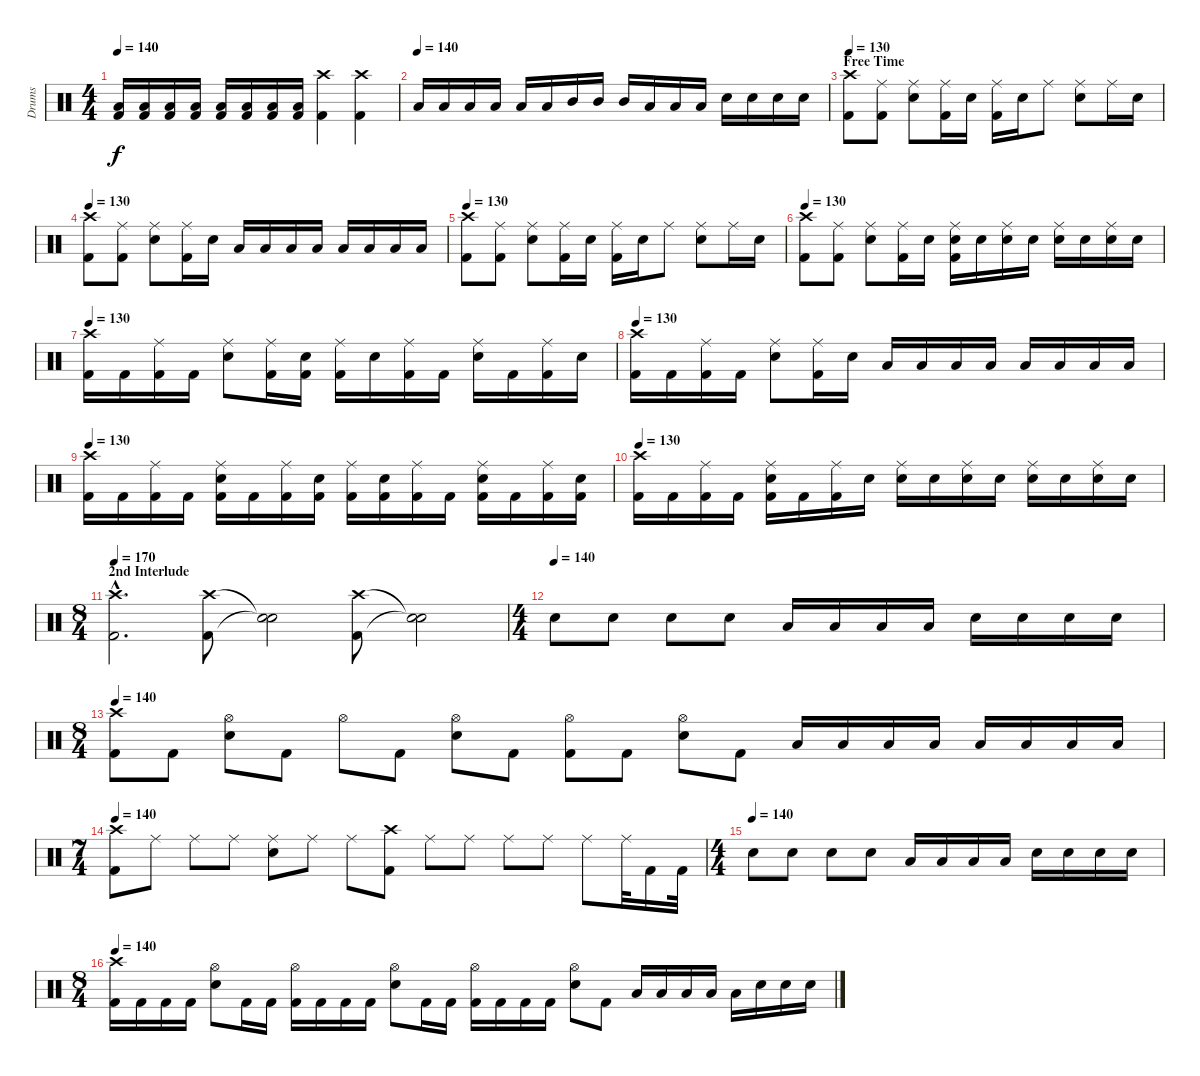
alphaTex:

\track ("Drums" "Drums") {instrument percussion}
\staff {score}
\articulation defaults
\ts (4 4)
\tempo 140
\clef neutral
\ks c
("Low Tom (hit)" "Kick (hit) 2").16{dy f} ("Low Tom (hit)" "Kick (hit) 2").16 ("Low Tom (hit)" "Kick (hit) 2").16 ("Low Tom (hit)" "Kick (hit) 2").16 ("Low Tom (hit)" "Kick (hit) 2").16 ("Low Tom (hit)" "Kick (hit) 2").16 ("Low Tom (hit)" "Kick (hit) 2").16 ("Low Tom (hit)" "Kick (hit) 2").16 ("Crash high (hit)" "Kick (hit) 2").4 ("Crash high (hit)" "Kick (hit) 2").4 |
\tempo (140)
"Low Tom (hit)".16 "Low Tom (hit)".16 "Low Tom (hit)".16 "Low Floor Tom (hit)".16 "Low Floor Tom (hit)".16 "Low Floor Tom (hit)".16 "Mid Tom (hit)".16 "Mid Tom (hit)".16 "Mid Tom (hit)".16 "Low Tom (hit)".16 "Low Tom (hit)".16 "Low Tom (hit)".16 "Snare (hit) 2".16 "Snare (hit) 2".16 "Snare (hit) 2".16 "Snare (hit) 2".16 |
\section ("" "Free Time")
\tempo 130
("Crash high (hit)" "Kick (hit) 2").8 ("Ride (middle)" "Kick (hit) 2").8 ("Ride (middle)" "Snare (hit) 2").8 ("Ride (middle)" "Kick (hit) 2").16 "Snare (hit) 2".16 ("Ride (middle)" "Kick (hit) 2").16 "Snare (hit) 2".16 "Ride (middle)".8 ("Ride (middle)" "Snare (hit) 2").8 "Ride (middle)".16 "Snare (hit) 2".16 |
\tempo 130
("Crash high (hit)" "Kick (hit) 2").8 ("Ride (middle)" "Kick (hit) 2").8 ("Ride (middle)" "Snare (hit) 2").8 ("Ride (middle)" "Kick (hit) 2").16 "Snare (hit) 2".16 "Low Tom (hit)".16 "Low Tom (hit)".16 "Low Tom (hit)".16 "Low Tom (hit)".16 "Low Floor Tom (hit)".16 "Low Floor Tom (hit)".16 "Low Floor Tom (hit)".16 "Low Floor Tom (hit)".16 |
\tempo 130
("Crash high (hit)" "Kick (hit) 2").8 ("Ride (middle)" "Kick (hit) 2").8 ("Ride (middle)" "Snare (hit) 2").8 ("Ride (middle)" "Kick (hit) 2").16 "Snare (hit) 2".16 ("Ride (middle)" "Kick (hit) 2").16 "Snare (hit) 2".16 "Ride (middle)".8 ("Ride (middle)" "Snare (hit) 2").8 "Ride (middle)".16 "Snare (hit) 2".16 |
\tempo 130
("Crash high (hit)" "Kick (hit) 2").8 ("Ride (middle)" "Kick (hit) 2").8 ("Ride (middle)" "Snare (hit) 2").8 ("Ride (middle)" "Kick (hit) 2").16 "Snare (hit) 2".16 ("Ride (middle)" "Snare (hit) 2" "Kick (hit) 2").16 "Snare (hit) 2".16 ("Ride (middle)" "Snare (hit) 2").16 "Snare (hit) 2".16 ("Ride (middle)" "Snare (hit) 2").16 "Snare (hit) 2".16 ("Ride (middle)" "Snare (hit) 2").16 "Snare (hit) 2".16 |
\tempo 130
("Crash high (hit)" "Kick (hit) 2").16 "Kick (hit) 2".16 ("Ride (middle)" "Kick (hit) 2").16 "Kick (hit) 2".16 ("Ride (middle)" "Snare (hit) 2").8 ("Ride (middle)" "Kick (hit) 2").16 ("Snare (hit) 2" "Kick (hit) 2").16 ("Ride (middle)" "Kick (hit) 2").16 "Snare (hit) 2".16 ("Ride (middle)" "Kick (hit) 2").16 "Kick (hit) 2".16 ("Ride (middle)" "Snare (hit) 2").16 "Kick (hit) 2".16 ("Ride (middle)" "Kick (hit) 2").16 "Snare (hit) 2".16 |
\tempo 130
("Crash high (hit)" "Kick (hit) 2").16 "Kick (hit) 2".16 ("Ride (middle)" "Kick (hit) 2").16 "Kick (hit) 2".16 ("Ride (middle)" "Snare (hit) 2").8 ("Ride (middle)" "Kick (hit) 2").16 "Snare (hit) 2".16 "Low Tom (hit)".16 "Low Tom (hit)".16 "Low Tom (hit)".16 "Low Tom (hit)".16 "Low Floor Tom (hit)".16 "Low Floor Tom (hit)".16 "Low Floor Tom (hit)".16 "Low Floor Tom (hit)".16 |
\tempo 130
("Crash high (hit)" "Kick (hit) 2").16 "Kick (hit) 2".16 ("Ride (middle)" "Kick (hit) 2").16 "Kick (hit) 2".16 ("Ride (middle)" "Snare (hit) 2" "Kick (hit) 2").16 "Kick (hit) 2".16 ("Ride (middle)" "Kick (hit) 2").16 ("Snare (hit) 2" "Kick (hit) 2").16 ("Ride (middle)" "Kick (hit) 2").16 ("Snare (hit) 2" "Kick (hit) 2").16 ("Ride (middle)" "Kick (hit) 2").16 "Kick (hit) 2".16 ("Ride (middle)" "Snare (hit) 2" "Kick (hit) 2").16 "Kick (hit) 2".16 ("Ride (middle)" "Kick (hit) 2").16 ("Snare (hit) 2" "Kick (hit) 2").16 |
\tempo 130
("Crash high (hit)" "Kick (hit) 2").16 "Kick (hit) 2".16 ("Ride (middle)" "Kick (hit) 2").16 "Kick (hit) 2".16 ("Ride (middle)" "Snare (hit) 2" "Kick (hit) 2").16 "Kick (hit) 2".16 ("Ride (middle)" "Kick (hit) 2").16 "Snare (hit) 2".16 ("Ride (middle)" "Snare (hit) 2").16 "Snare (hit) 2".16 ("Ride (middle)" "Snare (hit) 2").16 "Snare (hit) 2".16 ("Ride (middle)" "Snare (hit) 2").16 "Snare (hit) 2".16 ("Ride (middle)" "Snare (hit) 2").16 "Snare (hit) 2".16 |
\ts (8 4)
\section ("" "2nd Interlude")
\tempo 170
("Crash high (hit)"{hac} "Kick (hit) 2"{hac}).2{d} ("Crash high (hit)" "Kick (hit) 2").8 ("Snare (hit)"{t} "Snare (hit)"{t}).2 ("Crash high (hit)" "Kick (hit) 2").8 ("Snare (hit)"{t} "Snare (hit)"{t}).2 |
\ts (4 4)
\tempo (140)
"Snare (hit) 2".8 "Snare (hit) 2".8 "Snare (hit) 2".8 "Snare (hit) 2".8 "Low Tom (hit)".16 "Low Tom (hit)".16 "Low Tom (hit)".16 "Low Tom (hit)".16 "Snare (hit) 2".16 "Snare (hit) 2".16 "Snare (hit) 2".16 "Snare (hit) 2".16 |
\ts (8 4)
\tempo 140
("Crash high (hit)" "Kick (hit) 2").8 "Kick (hit) 2".8 ("Hi-Hat (open)" "Snare (hit) 2").8 "Kick (hit) 2".8 "Hi-Hat (open)".8 "Kick (hit) 2".8 ("Hi-Hat (open)" "Snare (hit) 2").8 "Kick (hit) 2".8 ("Hi-Hat (open)" "Kick (hit) 2").8 "Kick (hit) 2".8 ("Hi-Hat (open)" "Snare (hit) 2").8 "Kick (hit) 2".8 "Low Tom (hit)".16 "Low Tom (hit)".16 "Low Tom (hit)".16 "Low Tom (hit)".16 "Low Tom (hit)".16 "Low Floor Tom (hit)".16 "Low Floor Tom (hit)".16 "Low Floor Tom (hit)".16 |
\ts (7 4)
\tempo 140
("Crash high (hit)" "Kick (hit) 2").8 "Ride (middle)".8 "Ride (middle)".8 "Ride (middle)".8 ("Ride (middle)" "Snare (hit) 2").8 "Ride (middle)".8 "Ride (middle)".8 ("Crash high (hit)" "Kick (hit) 2").8 "Ride (middle)".8 "Ride (middle)".8 "Ride (middle)".8 "Ride (middle)".8 "Ride (middle)".8 "Ride (middle)".32 "Kick (hit) 2".16 "Kick (hit) 2".32 |
\ts (4 4)
\tempo (140)
"Snare (hit) 2".8 "Snare (hit) 2".8 "Snare (hit) 2".8 "Snare (hit) 2".8 "Low Tom (hit)".16 "Low Tom (hit)".16 "Low Tom (hit)".16 "Low Tom (hit)".16 "Snare (hit) 2".16 "Snare (hit) 2".16 "Snare (hit) 2".16 "Snare (hit) 2".16 |
\ts (8 4)
\tempo 140
("Crash high (hit)" "Kick (hit) 2").16 "Kick (hit) 2".16 "Kick (hit) 2".16 "Kick (hit) 2".16 ("Hi-Hat (open)" "Snare (hit) 2").8 "Kick (hit) 2".16 "Kick (hit) 2".16 ("Hi-Hat (open)" "Kick (hit) 2").16 "Kick (hit) 2".16 "Kick (hit) 2".16 "Kick (hit) 2".16 ("Hi-Hat (open)" "Snare (hit) 2").8 "Kick (hit) 2".16 "Kick (hit) 2".16 ("Hi-Hat (open)" "Kick (hit) 2").16 "Kick (hit) 2".16 "Kick (hit) 2".16 "Kick (hit) 2".16 ("Hi-Hat (open)" "Snare (hit) 2").8 "Kick (hit) 2".8 "Low Tom (hit)".16 "Low Tom (hit)".16 "Low Tom (hit)".16 "Low Tom (hit)".16 "Low Tom (hit)".16 "Snare (hit) 2".16 "Snare (hit) 2".16 "Snare (hit) 2".16
